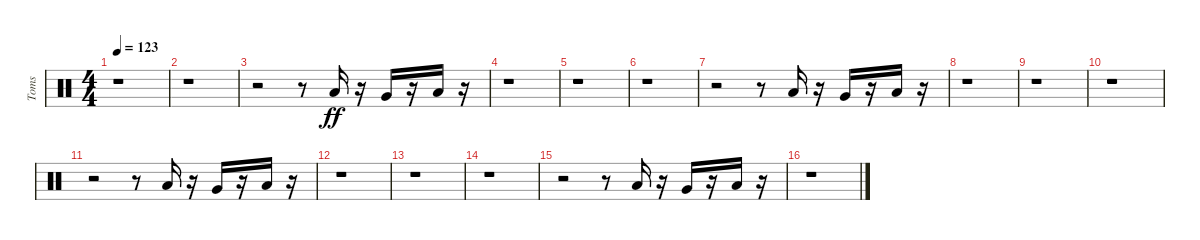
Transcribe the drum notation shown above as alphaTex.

\track ("Toms" "Toms") {instrument percussion}
\staff {score}
\articulation defaults
\ts (4 4)
\tempo 123
\clef neutral
\ks c
r.1{dy ff} |
r.1 |
r.2 r.8 "Low Tom (hit)".16 r.16 "Very Low Tom (hit)".16 r.16 "Low Floor Tom (hit)".16 r.16 |
r.1 |
r.1 |
r.1 |
r.2 r.8 "Low Tom (hit)".16 r.16 "Very Low Tom (hit)".16 r.16 "Low Floor Tom (hit)".16 r.16 |
r.1 |
r.1 |
r.1 |
r.2 r.8 "Low Tom (hit)".16 r.16 "Very Low Tom (hit)".16 r.16 "Low Floor Tom (hit)".16 r.16 |
r.1 |
r.1 |
r.1 |
r.2 r.8 "Low Tom (hit)".16 r.16 "Very Low Tom (hit)".16 r.16 "Low Floor Tom (hit)".16 r.16 |
r.1
